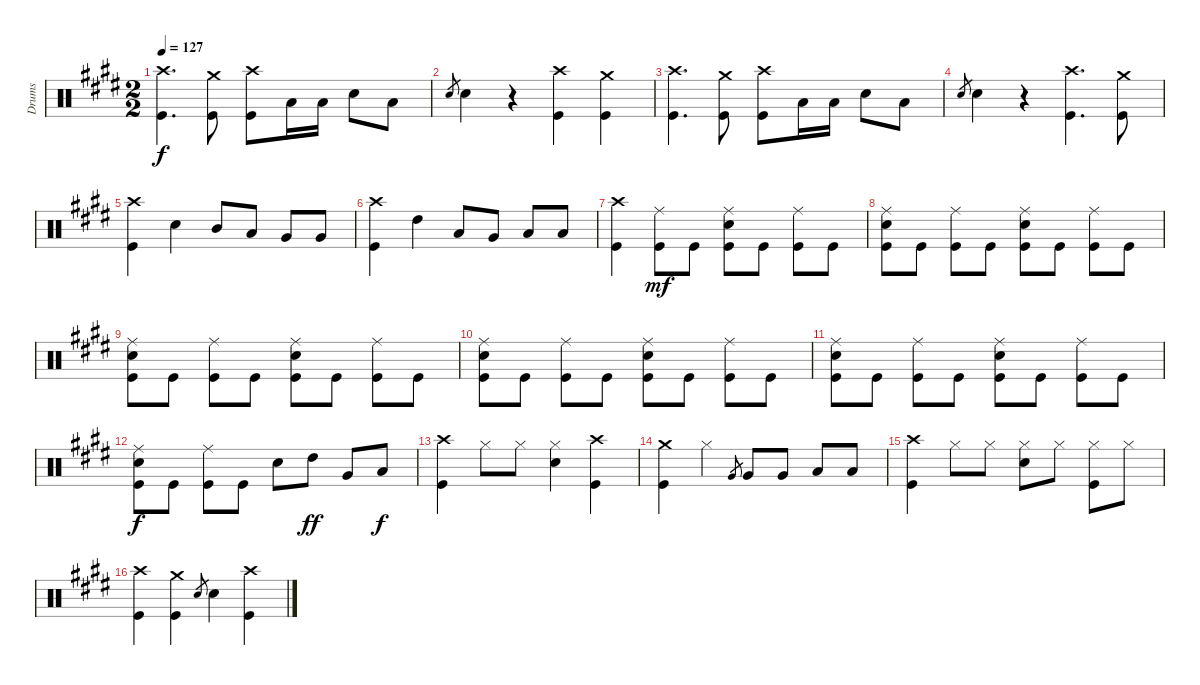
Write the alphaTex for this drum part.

\track ("Drums" "Drums") {solo instrument percussion}
\staff {score}
\articulation defaults
\ts (2 2)
\tempo 127
\clef neutral
\ks e
("Crash high (hit)" "Kick (hit)").4{d dy f} ("Crash medium (hit)" "Kick (hit)").8 ("Crash high (hit)" "Kick (hit)").8 "Low Floor Tom (hit)".16 "Low Floor Tom (hit)".16 "Snare (hit) 2".8 "Low Floor Tom (hit)".8 |
"Snare (hit) 2".8{gr} "Snare (hit) 2".4 r.4 ("Crash high (hit)" "Kick (hit)").4 ("Crash medium (hit)" "Kick (hit)").4 |
("Crash high (hit)" "Kick (hit)").4{d} ("Crash medium (hit)" "Kick (hit)").8 ("Crash high (hit)" "Kick (hit)").8 "Low Floor Tom (hit)".16 "Low Floor Tom (hit)".16 "Snare (hit) 2".8 "Low Floor Tom (hit)".8 |
"Snare (hit) 2".8{gr} "Snare (hit) 2".4 r.4 ("Crash high (hit)" "Kick (hit)").4{d} ("Crash medium (hit)" "Kick (hit)").8 |
("Crash high (hit)" "Kick (hit)").4 "Snare (hit) 2".4 "Mid Tom (hit)".8 "Low Tom (hit)".8 "Very Low Tom (hit)".8 "Very Low Tom (hit)".8 |
("Crash high (hit)" "Kick (hit)").4 "High Tom (hit)".4 "Low Tom (hit)".8 "Very Low Tom (hit)".8 "Low Floor Tom (hit)".8 "Low Floor Tom (hit)".8 |
("Crash high (hit)" "Kick (hit)").4 ("Ride (middle)" "Kick (hit)").8{dy mf} "Kick (hit)".8 ("Ride (middle)" "Snare (hit) 2" "Kick (hit)").8 "Kick (hit)".8 ("Ride (middle)" "Kick (hit)").8 "Kick (hit)".8 |
("Ride (middle)" "Snare (hit) 2" "Kick (hit)").8 "Kick (hit)".8 ("Ride (middle)" "Kick (hit)").8 "Kick (hit)".8 ("Ride (middle)" "Snare (hit) 2" "Kick (hit)").8 "Kick (hit)".8 ("Ride (middle)" "Kick (hit)").8 "Kick (hit)".8 |
("Ride (middle)" "Snare (hit) 2" "Kick (hit)").8 "Kick (hit)".8 ("Ride (middle)" "Kick (hit)").8 "Kick (hit)".8 ("Ride (middle)" "Snare (hit) 2" "Kick (hit)").8 "Kick (hit)".8 ("Ride (middle)" "Kick (hit)").8 "Kick (hit)".8 |
("Ride (middle)" "Snare (hit) 2" "Kick (hit)").8 "Kick (hit)".8 ("Ride (middle)" "Kick (hit)").8 "Kick (hit)".8 ("Ride (middle)" "Snare (hit) 2" "Kick (hit)").8 "Kick (hit)".8 ("Ride (middle)" "Kick (hit)").8 "Kick (hit)".8 |
("Ride (middle)" "Snare (hit) 2" "Kick (hit)").8 "Kick (hit)".8 ("Ride (middle)" "Kick (hit)").8 "Kick (hit)".8 ("Ride (middle)" "Snare (hit) 2" "Kick (hit)").8 "Kick (hit)".8 ("Ride (middle)" "Kick (hit)").8 "Kick (hit)".8 |
("Ride (middle)" "Snare (hit) 2" "Kick (hit)").8{dy f} "Kick (hit)".8 ("Ride (middle)" "Kick (hit)").8 "Kick (hit)".8 "Snare (hit) 2".8 "High Tom (hit)".8{dy ff} "Very Low Tom (hit)".8 "Low Floor Tom (hit)".8{dy f} |
("Crash high (hit)" "Kick (hit)").4 "Hi-Hat (closed)".8 "Hi-Hat (closed)".8 ("Hi-Hat (closed)" "Snare (hit) 2").4 ("Crash high (hit)" "Kick (hit)").4 |
("Crash medium (hit)" "Kick (hit)").4 "Hi-Hat (closed)".4 "Very Low Tom (hit)".8{gr} "Very Low Tom (hit)".8 "Very Low Tom (hit)".8 "Low Floor Tom (hit)".8 "Low Floor Tom (hit)".8 |
("Crash high (hit)" "Kick (hit)").4 "Hi-Hat (closed)".8 "Hi-Hat (closed)".8 ("Hi-Hat (closed)" "Snare (hit) 2").8 "Hi-Hat (closed)".8 ("Hi-Hat (closed)" "Kick (hit)").8 "Hi-Hat (closed)".8 |
("Crash high (hit)" "Kick (hit)").4 ("Crash medium (hit)" "Kick (hit)").4 "Snare (hit) 2".8{gr} "Snare (hit) 2".4 ("Crash high (hit)" "Kick (hit)").4
